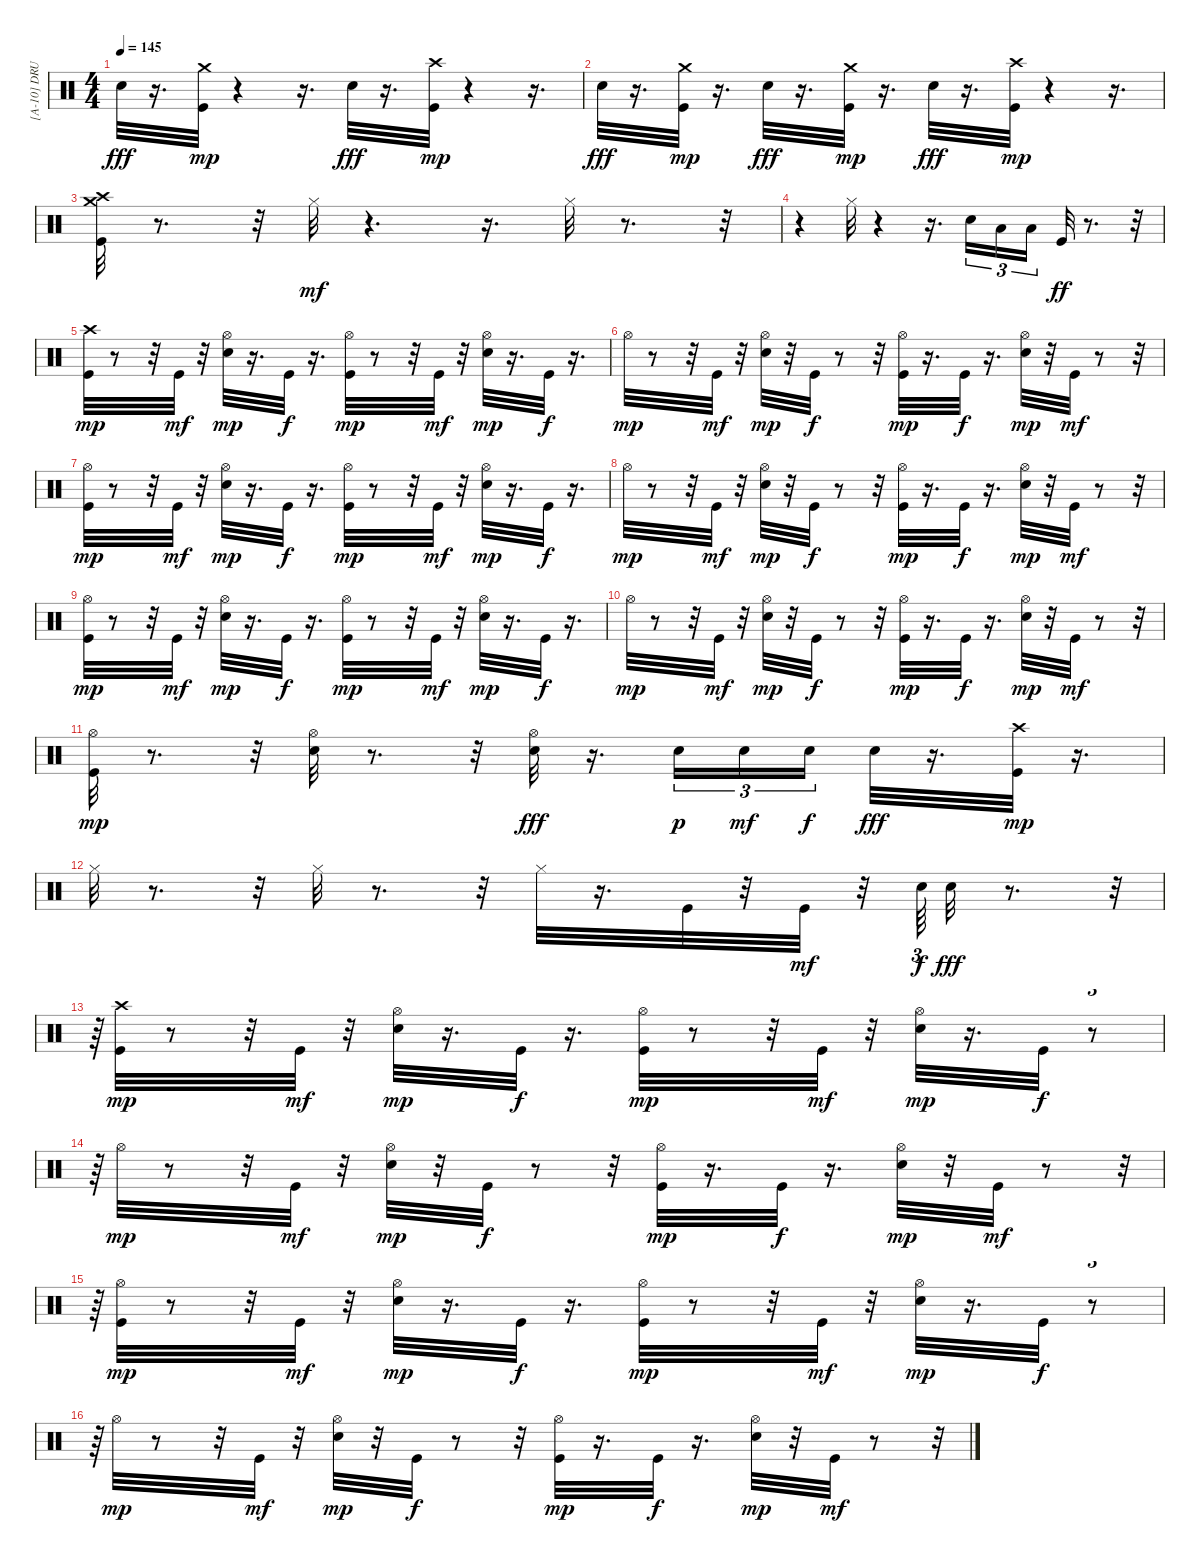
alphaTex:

\track ("[A-10] DRUMS" "[A-10] DRU") {instrument percussion}
\staff {score}
\articulation defaults
\ts (4 4)
\tempo 145
\clef neutral
\ks c "Snare (hit) 2".32{dy fff}
r.16{d} ("Kick (hit)" "Crash medium (hit)").32{dy mp} r.4 r.16{d} "Snare (hit) 2".32{dy fff} r.16{d} ("Kick (hit)" "Crash high (hit)").32{dy mp} r.4 r.16{d} |
"Snare (hit) 2".32{dy fff} r.16{d} ("Kick (hit)" "Crash medium (hit)").32{dy mp} r.16{d} "Snare (hit) 2".32{dy fff} r.16{d} ("Kick (hit)" "Crash medium (hit)").32{dy mp} r.16{d} "Snare (hit) 2".32{dy fff} r.16{d} ("Kick (hit)" "Crash high (hit)").32{dy mp} r.4 r.16{d} |
("Kick (hit)" "Crash medium (hit)" "Crash high (hit)").32 r.8{d} r.32 "Hi-Hat (closed)".32{dy mf} r.4{d} r.16{d} "Hi-Hat (closed)".32 r.8{d} r.32 |
r.4 "Hi-Hat (closed)".32 r.4 r.16{d} "Snare (hit) 2".16{tu (3 2)} "Low Tom (hit)".16{tu (3 2)} "Low Floor Tom (hit)".16{tu (3 2)} "Kick (hit)".32{dy ff} r.8{d} r.32 |
("Kick (hit)" "Crash high (hit)").32{dy mp} r.8 r.32 "Kick (hit)".32{dy mf} r.32 ("Snare (hit) 2" "Hi-Hat (open)").32{dy mp} r.16{d} "Kick (hit)".32{dy f} r.16{d} ("Kick (hit)" "Hi-Hat (open)").32{dy mp} r.8 r.32 "Kick (hit)".32{dy mf} r.32 ("Snare (hit) 2" "Hi-Hat (open)").32{dy mp} r.16{d} "Kick (hit)".32{dy f} r.16{d} |
"Hi-Hat (open)".32{dy mp} r.8 r.32 "Kick (hit)".32{dy mf} r.32 ("Snare (hit) 2" "Hi-Hat (open)").32{dy mp} r.32 "Kick (hit)".32{dy f} r.8 r.32 ("Kick (hit)" "Hi-Hat (open)").32{dy mp} r.16{d} "Kick (hit)".32{dy f} r.16{d} ("Snare (hit) 2" "Hi-Hat (open)").32{dy mp} r.32 "Kick (hit)".32{dy mf} r.8 r.32 |
("Kick (hit)" "Hi-Hat (open)").32{dy mp} r.8 r.32 "Kick (hit)".32{dy mf} r.32 ("Snare (hit) 2" "Hi-Hat (open)").32{dy mp} r.16{d} "Kick (hit)".32{dy f} r.16{d} ("Kick (hit)" "Hi-Hat (open)").32{dy mp} r.8 r.32 "Kick (hit)".32{dy mf} r.32 ("Snare (hit) 2" "Hi-Hat (open)").32{dy mp} r.16{d} "Kick (hit)".32{dy f} r.16{d} |
"Hi-Hat (open)".32{dy mp} r.8 r.32 "Kick (hit)".32{dy mf} r.32 ("Snare (hit) 2" "Hi-Hat (open)").32{dy mp} r.32 "Kick (hit)".32{dy f} r.8 r.32 ("Kick (hit)" "Hi-Hat (open)").32{dy mp} r.16{d} "Kick (hit)".32{dy f} r.16{d} ("Snare (hit) 2" "Hi-Hat (open)").32{dy mp} r.32 "Kick (hit)".32{dy mf} r.8 r.32 |
("Kick (hit)" "Hi-Hat (open)").32{dy mp} r.8 r.32 "Kick (hit)".32{dy mf} r.32 ("Snare (hit) 2" "Hi-Hat (open)").32{dy mp} r.16{d} "Kick (hit)".32{dy f} r.16{d} ("Kick (hit)" "Hi-Hat (open)").32{dy mp} r.8 r.32 "Kick (hit)".32{dy mf} r.32 ("Snare (hit) 2" "Hi-Hat (open)").32{dy mp} r.16{d} "Kick (hit)".32{dy f} r.16{d} |
"Hi-Hat (open)".32{dy mp} r.8 r.32 "Kick (hit)".32{dy mf} r.32 ("Snare (hit) 2" "Hi-Hat (open)").32{dy mp} r.32 "Kick (hit)".32{dy f} r.8 r.32 ("Kick (hit)" "Hi-Hat (open)").32{dy mp} r.16{d} "Kick (hit)".32{dy f} r.16{d} ("Snare (hit) 2" "Hi-Hat (open)").32{dy mp} r.32 "Kick (hit)".32{dy mf} r.8 r.32 |
("Kick (hit)" "Hi-Hat (open)").32{dy mp} r.8{d} r.32 ("Snare (hit) 2" "Hi-Hat (open)").32 r.8{d} r.32 ("Hi-Hat (open)" "Snare (hit) 2").32{dy fff} r.16{d} "Snare (hit) 2".16{tu (3 2) dy p} "Snare (hit) 2".16{tu (3 2) dy mf} "Snare (hit) 2".16{tu (3 2) dy f} "Snare (hit) 2".32{dy fff} r.16{d} ("Kick (hit)" "Crash high (hit)").32{dy mp} r.16{d} |
"Hi-Hat (closed)".32 r.8{d} r.32 "Hi-Hat (closed)".32 r.8{d} r.32 "Hi-Hat (closed)".32 r.16{d} "Kick (hit)".32 r.32 "Kick (hit)".32{dy mf} r.32 "Snare (hit) 2".64{tu (3 2) dy f} "Snare (hit) 2".32{dy fff} r.8{d} r.32{tu (3 2)} |
r.64{tu (3 2)} ("Kick (hit)" "Crash high (hit)").32{dy mp} r.8 r.32 "Kick (hit)".32{dy mf} r.32 ("Snare (hit) 2" "Hi-Hat (open)").32{dy mp} r.16{d} "Kick (hit)".32{dy f} r.16{d} ("Kick (hit)" "Hi-Hat (open)").32{dy mp} r.8 r.32 "Kick (hit)".32{dy mf} r.32 ("Snare (hit) 2" "Hi-Hat (open)").32{dy mp} r.16{d} "Kick (hit)".32{dy f} r.8{tu (3 2)} |
r.64{tu (3 2)} "Hi-Hat (open)".32{dy mp} r.8 r.32 "Kick (hit)".32{dy mf} r.32 ("Snare (hit) 2" "Hi-Hat (open)").32{dy mp} r.32 "Kick (hit)".32{dy f} r.8 r.32 ("Kick (hit)" "Hi-Hat (open)").32{dy mp} r.16{d} "Kick (hit)".32{dy f} r.16{d} ("Snare (hit) 2" "Hi-Hat (open)").32{dy mp} r.32 "Kick (hit)".32{dy mf} r.8 r.32{tu (3 2)} |
r.64{tu (3 2)} ("Kick (hit)" "Hi-Hat (open)").32{dy mp} r.8 r.32 "Kick (hit)".32{dy mf} r.32 ("Snare (hit) 2" "Hi-Hat (open)").32{dy mp} r.16{d} "Kick (hit)".32{dy f} r.16{d} ("Kick (hit)" "Hi-Hat (open)").32{dy mp} r.8 r.32 "Kick (hit)".32{dy mf} r.32 ("Snare (hit) 2" "Hi-Hat (open)").32{dy mp} r.16{d} "Kick (hit)".32{dy f} r.8{tu (3 2)} |
r.64{tu (3 2)} "Hi-Hat (open)".32{dy mp} r.8 r.32 "Kick (hit)".32{dy mf} r.32 ("Snare (hit) 2" "Hi-Hat (open)").32{dy mp} r.32 "Kick (hit)".32{dy f} r.8 r.32 ("Kick (hit)" "Hi-Hat (open)").32{dy mp} r.16{d} "Kick (hit)".32{dy f} r.16{d} ("Snare (hit) 2" "Hi-Hat (open)").32{dy mp} r.32 "Kick (hit)".32{dy mf} r.8 r.32{tu (3 2)}
